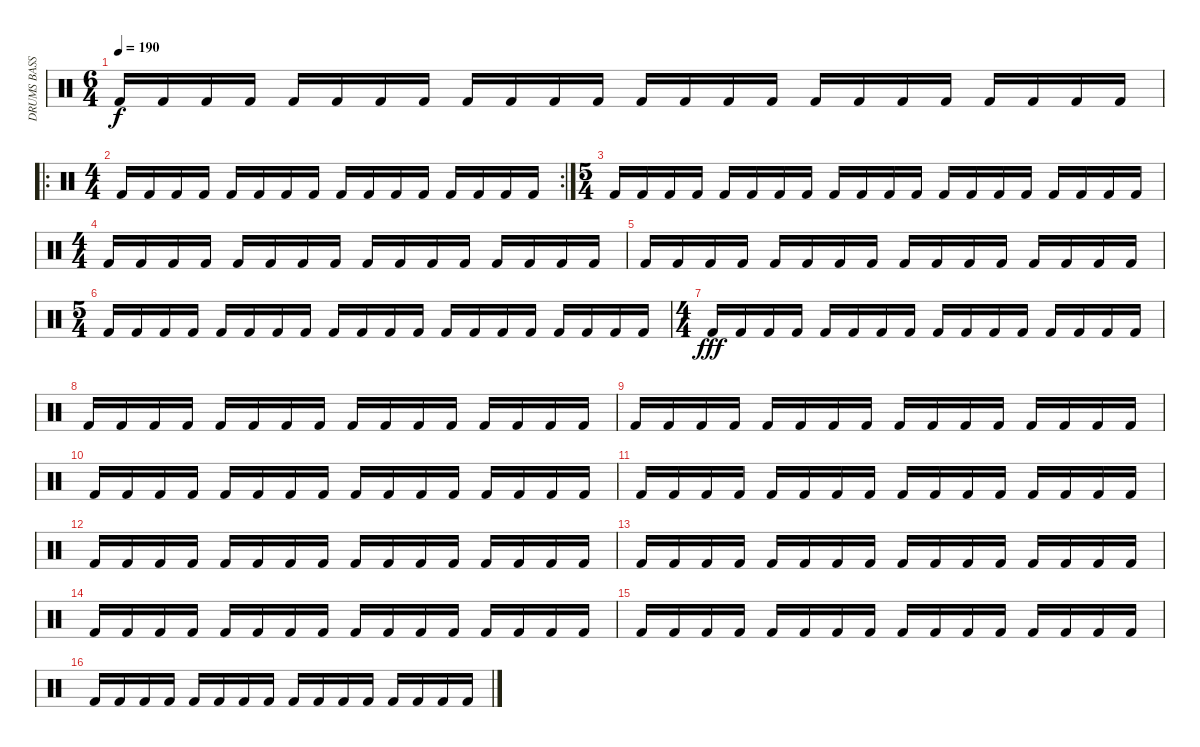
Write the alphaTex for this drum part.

\track ("DRUMS BASS" "DRUMS BASS") {instrument percussion}
\staff {score}
\articulation defaults
\ts (6 4)
\tempo 190
\clef neutral
\ks c "Kick (hit) 2".16{dy f} "Kick (hit) 2".16 "Kick (hit) 2".16 "Kick (hit) 2".16 "Kick (hit) 2".16 "Kick (hit) 2".16 "Kick (hit) 2".16 "Kick (hit) 2".16 "Kick (hit) 2".16 "Kick (hit) 2".16 "Kick (hit) 2".16 "Kick (hit) 2".16 "Kick (hit) 2".16 "Kick (hit) 2".16 "Kick (hit) 2".16 "Kick (hit) 2".16 "Kick (hit) 2".16 "Kick (hit) 2".16 "Kick (hit) 2".16 "Kick (hit) 2".16 "Kick (hit) 2".16 "Kick (hit) 2".16 "Kick (hit) 2".16 "Kick (hit) 2".16
|
\ro
\rc 2
\ts (4 4)
"Kick (hit) 2".16 "Kick (hit) 2".16 "Kick (hit) 2".16 "Kick (hit) 2".16 "Kick (hit) 2".16 "Kick (hit) 2".16 "Kick (hit) 2".16 "Kick (hit) 2".16 "Kick (hit) 2".16 "Kick (hit) 2".16 "Kick (hit) 2".16 "Kick (hit) 2".16 "Kick (hit) 2".16 "Kick (hit) 2".16 "Kick (hit) 2".16 "Kick (hit) 2".16 |
\ts (5 4)
"Kick (hit) 2".16 "Kick (hit) 2".16 "Kick (hit) 2".16 "Kick (hit) 2".16 "Kick (hit) 2".16 "Kick (hit) 2".16 "Kick (hit) 2".16 "Kick (hit) 2".16 "Kick (hit) 2".16 "Kick (hit) 2".16 "Kick (hit) 2".16 "Kick (hit) 2".16 "Kick (hit) 2".16 "Kick (hit) 2".16 "Kick (hit) 2".16 "Kick (hit) 2".16 "Kick (hit) 2".16 "Kick (hit) 2".16 "Kick (hit) 2".16 "Kick (hit) 2".16 |
\ts (4 4)
"Kick (hit) 2".16 "Kick (hit) 2".16 "Kick (hit) 2".16 "Kick (hit) 2".16 "Kick (hit) 2".16 "Kick (hit) 2".16 "Kick (hit) 2".16 "Kick (hit) 2".16 "Kick (hit) 2".16 "Kick (hit) 2".16 "Kick (hit) 2".16 "Kick (hit) 2".16 "Kick (hit) 2".16 "Kick (hit) 2".16 "Kick (hit) 2".16 "Kick (hit) 2".16 |
"Kick (hit) 2".16 "Kick (hit) 2".16 "Kick (hit) 2".16 "Kick (hit) 2".16 "Kick (hit) 2".16 "Kick (hit) 2".16 "Kick (hit) 2".16 "Kick (hit) 2".16 "Kick (hit) 2".16 "Kick (hit) 2".16 "Kick (hit) 2".16 "Kick (hit) 2".16 "Kick (hit) 2".16 "Kick (hit) 2".16 "Kick (hit) 2".16 "Kick (hit) 2".16 |
\ts (5 4)
"Kick (hit) 2".16 "Kick (hit) 2".16 "Kick (hit) 2".16 "Kick (hit) 2".16 "Kick (hit) 2".16 "Kick (hit) 2".16 "Kick (hit) 2".16 "Kick (hit) 2".16 "Kick (hit) 2".16 "Kick (hit) 2".16 "Kick (hit) 2".16 "Kick (hit) 2".16 "Kick (hit) 2".16 "Kick (hit) 2".16 "Kick (hit) 2".16 "Kick (hit) 2".16 "Kick (hit) 2".16 "Kick (hit) 2".16 "Kick (hit) 2".16 "Kick (hit) 2".16 |
\ts (4 4)
"Kick (hit) 2".16{dy fff} "Kick (hit) 2".16 "Kick (hit) 2".16 "Kick (hit) 2".16 "Kick (hit) 2".16 "Kick (hit) 2".16 "Kick (hit) 2".16 "Kick (hit) 2".16 "Kick (hit) 2".16 "Kick (hit) 2".16 "Kick (hit) 2".16 "Kick (hit) 2".16 "Kick (hit) 2".16 "Kick (hit) 2".16 "Kick (hit) 2".16 "Kick (hit) 2".16 |
"Kick (hit) 2".16 "Kick (hit) 2".16 "Kick (hit) 2".16 "Kick (hit) 2".16 "Kick (hit) 2".16 "Kick (hit) 2".16 "Kick (hit) 2".16 "Kick (hit) 2".16 "Kick (hit) 2".16 "Kick (hit) 2".16 "Kick (hit) 2".16 "Kick (hit) 2".16 "Kick (hit) 2".16 "Kick (hit) 2".16 "Kick (hit) 2".16 "Kick (hit) 2".16 |
"Kick (hit) 2".16 "Kick (hit) 2".16 "Kick (hit) 2".16 "Kick (hit) 2".16 "Kick (hit) 2".16 "Kick (hit) 2".16 "Kick (hit) 2".16 "Kick (hit) 2".16 "Kick (hit) 2".16 "Kick (hit) 2".16 "Kick (hit) 2".16 "Kick (hit) 2".16 "Kick (hit) 2".16 "Kick (hit) 2".16 "Kick (hit) 2".16 "Kick (hit) 2".16 |
"Kick (hit) 2".16 "Kick (hit) 2".16 "Kick (hit) 2".16 "Kick (hit) 2".16 "Kick (hit) 2".16 "Kick (hit) 2".16 "Kick (hit) 2".16 "Kick (hit) 2".16 "Kick (hit) 2".16 "Kick (hit) 2".16 "Kick (hit) 2".16 "Kick (hit) 2".16 "Kick (hit) 2".16 "Kick (hit) 2".16 "Kick (hit) 2".16 "Kick (hit) 2".16 |
"Kick (hit) 2".16 "Kick (hit) 2".16 "Kick (hit) 2".16 "Kick (hit) 2".16 "Kick (hit) 2".16 "Kick (hit) 2".16 "Kick (hit) 2".16 "Kick (hit) 2".16 "Kick (hit) 2".16 "Kick (hit) 2".16 "Kick (hit) 2".16 "Kick (hit) 2".16 "Kick (hit) 2".16 "Kick (hit) 2".16 "Kick (hit) 2".16 "Kick (hit) 2".16 |
"Kick (hit) 2".16 "Kick (hit) 2".16 "Kick (hit) 2".16 "Kick (hit) 2".16 "Kick (hit) 2".16 "Kick (hit) 2".16 "Kick (hit) 2".16 "Kick (hit) 2".16 "Kick (hit) 2".16 "Kick (hit) 2".16 "Kick (hit) 2".16 "Kick (hit) 2".16 "Kick (hit) 2".16 "Kick (hit) 2".16 "Kick (hit) 2".16 "Kick (hit) 2".16 |
"Kick (hit) 2".16 "Kick (hit) 2".16 "Kick (hit) 2".16 "Kick (hit) 2".16 "Kick (hit) 2".16 "Kick (hit) 2".16 "Kick (hit) 2".16 "Kick (hit) 2".16 "Kick (hit) 2".16 "Kick (hit) 2".16 "Kick (hit) 2".16 "Kick (hit) 2".16 "Kick (hit) 2".16 "Kick (hit) 2".16 "Kick (hit) 2".16 "Kick (hit) 2".16 |
"Kick (hit) 2".16 "Kick (hit) 2".16 "Kick (hit) 2".16 "Kick (hit) 2".16 "Kick (hit) 2".16 "Kick (hit) 2".16 "Kick (hit) 2".16 "Kick (hit) 2".16 "Kick (hit) 2".16 "Kick (hit) 2".16 "Kick (hit) 2".16 "Kick (hit) 2".16 "Kick (hit) 2".16 "Kick (hit) 2".16 "Kick (hit) 2".16 "Kick (hit) 2".16 |
"Kick (hit) 2".16 "Kick (hit) 2".16 "Kick (hit) 2".16 "Kick (hit) 2".16 "Kick (hit) 2".16 "Kick (hit) 2".16 "Kick (hit) 2".16 "Kick (hit) 2".16 "Kick (hit) 2".16 "Kick (hit) 2".16 "Kick (hit) 2".16 "Kick (hit) 2".16 "Kick (hit) 2".16 "Kick (hit) 2".16 "Kick (hit) 2".16 "Kick (hit) 2".16 |
"Kick (hit) 2".16 "Kick (hit) 2".16 "Kick (hit) 2".16 "Kick (hit) 2".16 "Kick (hit) 2".16 "Kick (hit) 2".16 "Kick (hit) 2".16 "Kick (hit) 2".16 "Kick (hit) 2".16 "Kick (hit) 2".16 "Kick (hit) 2".16 "Kick (hit) 2".16 "Kick (hit) 2".16 "Kick (hit) 2".16 "Kick (hit) 2".16 "Kick (hit) 2".16
